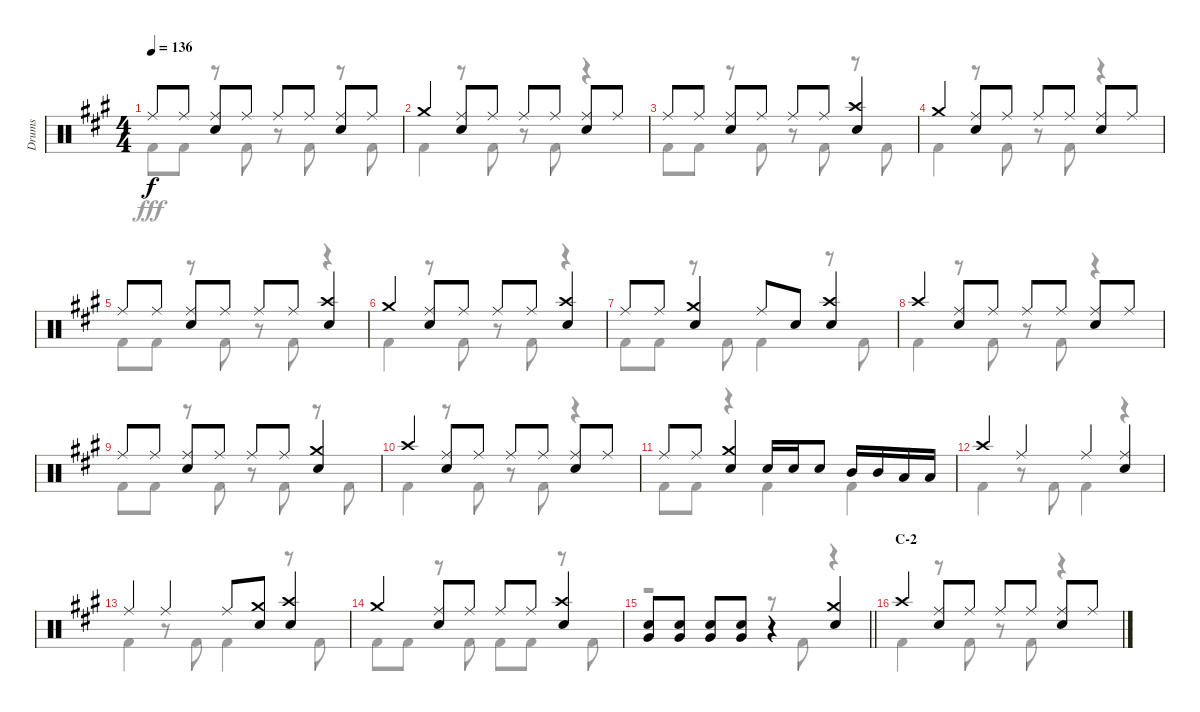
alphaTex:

\track ("Drums" "Drums") {instrument percussion}
\staff {score}
\articulation defaults
\voice
\ts (4 4)
\tempo 136
\clef neutral
\ks a "Ride (middle)".8{dy f} "Ride (middle)".8
("Ride (middle)" "Snare (hit) 2").8 "Ride (middle)".8 "Ride (middle)".8 "Ride (middle)".8 ("Ride (middle)" "Snare (hit) 2").8 "Ride (middle)".8 |
"Crash medium (hit)".4 ("Ride (middle)" "Snare (hit) 2").8 "Ride (middle)".8 "Ride (middle)".8 "Ride (middle)".8 ("Ride (middle)" "Snare (hit) 2").8 "Ride (middle)".8 |
"Ride (middle)".8 "Ride (middle)".8 ("Ride (middle)" "Snare (hit) 2").8 "Ride (middle)".8 "Ride (middle)".8 "Ride (middle)".8 ("Crash high (hit)" "Snare (hit) 2").4 |
"Crash medium (hit)".4 ("Ride (middle)" "Snare (hit) 2").8 "Ride (middle)".8 "Ride (middle)".8 "Ride (middle)".8 ("Ride (middle)" "Snare (hit) 2").8 "Ride (middle)".8 |
"Ride (middle)".8 "Ride (middle)".8 ("Ride (middle)" "Snare (hit) 2").8 "Ride (middle)".8 "Ride (middle)".8 "Ride (middle)".8 ("Crash high (hit)" "Snare (hit) 2").4 |
"Crash medium (hit)".4 ("Ride (middle)" "Snare (hit) 2").8 "Ride (middle)".8 "Ride (middle)".8 "Ride (middle)".8 ("Crash high (hit)" "Snare (hit) 2").4 |
"Ride (middle)".8 "Ride (middle)".8 ("Crash medium (hit)" "Snare (hit) 2").4 "Ride (middle)".8 "Snare (hit) 2".8 ("Crash high (hit)" "Snare (hit) 2").4 |
"Crash high (hit)".4 ("Ride (middle)" "Snare (hit) 2").8 "Ride (middle)".8 "Ride (middle)".8 "Ride (middle)".8 ("Ride (middle)" "Snare (hit) 2").8 "Ride (middle)".8 |
"Ride (middle)".8 "Ride (middle)".8 ("Ride (middle)" "Snare (hit) 2").8 "Ride (middle)".8 "Ride (middle)".8 "Ride (middle)".8 ("Crash medium (hit)" "Snare (hit) 2").4 |
"Crash high (hit)".4 ("Ride (middle)" "Snare (hit) 2").8 "Ride (middle)".8 "Ride (middle)".8 "Ride (middle)".8 ("Ride (middle)" "Snare (hit) 2").8 "Ride (middle)".8 |
"Ride (middle)".8 "Ride (middle)".8 ("Crash medium (hit)" "Snare (hit) 2").4 "Snare (hit) 2".16 "Snare (hit) 2".16 "Snare (hit) 2".8 "Mid Tom (hit)".16 "Mid Tom (hit)".16 "Low Tom (hit)".16 "Low Tom (hit)".16 |
"Crash high (hit)".4 "Ride (middle)".4 "Ride (middle)".4 ("Ride (middle)" "Snare (hit) 2").4 |
"Ride (middle)".4 "Ride (middle)".4 "Ride (middle)".8 ("Crash medium (hit)" "Snare (hit) 2").8 ("Crash high (hit)" "Snare (hit) 2").4 |
"Crash medium (hit)".4 ("Ride (middle)" "Snare (hit) 2").8 "Ride (middle)".8 "Ride (middle)".8 "Ride (middle)".8 ("Crash high (hit)" "Snare (hit) 2").4 |
\barLineRight lightlight
("Snare (hit) 2" "Very Low Tom (hit)").8 ("Snare (hit) 2" "Very Low Tom (hit)").8 ("Snare (hit) 2" "Very Low Tom (hit)").8 ("Snare (hit) 2" "Very Low Tom (hit)").8 r.4 ("Crash medium (hit)" "Snare (hit) 2").4 |
\section ("" "C-2")
"Crash high (hit)".4 ("Ride (middle)" "Snare (hit) 2").8 "Ride (middle)".8 "Ride (middle)".8 "Ride (middle)".8 ("Ride (middle)" "Snare (hit) 2").8 "Ride (middle)".8
\voice
\clef neutral
\ottava regular
\simile none
\ks a "Kick (hit) 2".8{dy fff} "Kick (hit) 2".8
r.8 "Kick (hit) 2".8 r.8 "Kick (hit) 2".8 r.8 "Kick (hit) 2".8 |
"Kick (hit) 2".4 r.8 "Kick (hit) 2".8 r.8 "Kick (hit) 2".8 r.4 |
"Kick (hit) 2".8 "Kick (hit) 2".8 r.8 "Kick (hit) 2".8 r.8 "Kick (hit) 2".8 r.8 "Kick (hit) 2".8 |
"Kick (hit) 2".4 r.8 "Kick (hit) 2".8 r.8 "Kick (hit) 2".8 r.4 |
"Kick (hit) 2".8 "Kick (hit) 2".8 r.8 "Kick (hit) 2".8 r.8 "Kick (hit) 2".8 r.4 |
"Kick (hit) 2".4 r.8 "Kick (hit) 2".8 r.8 "Kick (hit) 2".8 r.4 |
"Kick (hit) 2".8 "Kick (hit) 2".8 r.8 "Kick (hit) 2".8 "Kick (hit) 2".4 r.8 "Kick (hit) 2".8 |
"Kick (hit) 2".4 r.8 "Kick (hit) 2".8 r.8 "Kick (hit) 2".8 r.4 |
"Kick (hit) 2".8 "Kick (hit) 2".8 r.8 "Kick (hit) 2".8 r.8 "Kick (hit) 2".8 r.8 "Kick (hit) 2".8 |
"Kick (hit) 2".4 r.8 "Kick (hit) 2".8 r.8 "Kick (hit) 2".8 r.4 |
"Kick (hit) 2".8 "Kick (hit) 2".8 r.4 "Kick (hit) 2".4 "Kick (hit) 2".4 |
"Kick (hit) 2".4 r.8 "Kick (hit) 2".8 "Kick (hit) 2".4 r.4 |
"Kick (hit) 2".4 r.8 "Kick (hit) 2".8 "Kick (hit) 2".4 r.8 "Kick (hit) 2".8 |
"Kick (hit) 2".8 "Kick (hit) 2".8 r.8 "Kick (hit) 2".8 "Kick (hit) 2".8 "Kick (hit) 2".8 r.8 "Kick (hit) 2".8 |
\barLineRight lightlight
r.2 r.8 "Kick (hit) 2".8 r.4 |
"Kick (hit) 2".4 r.8 "Kick (hit) 2".8 r.8 "Kick (hit) 2".8 r.4
